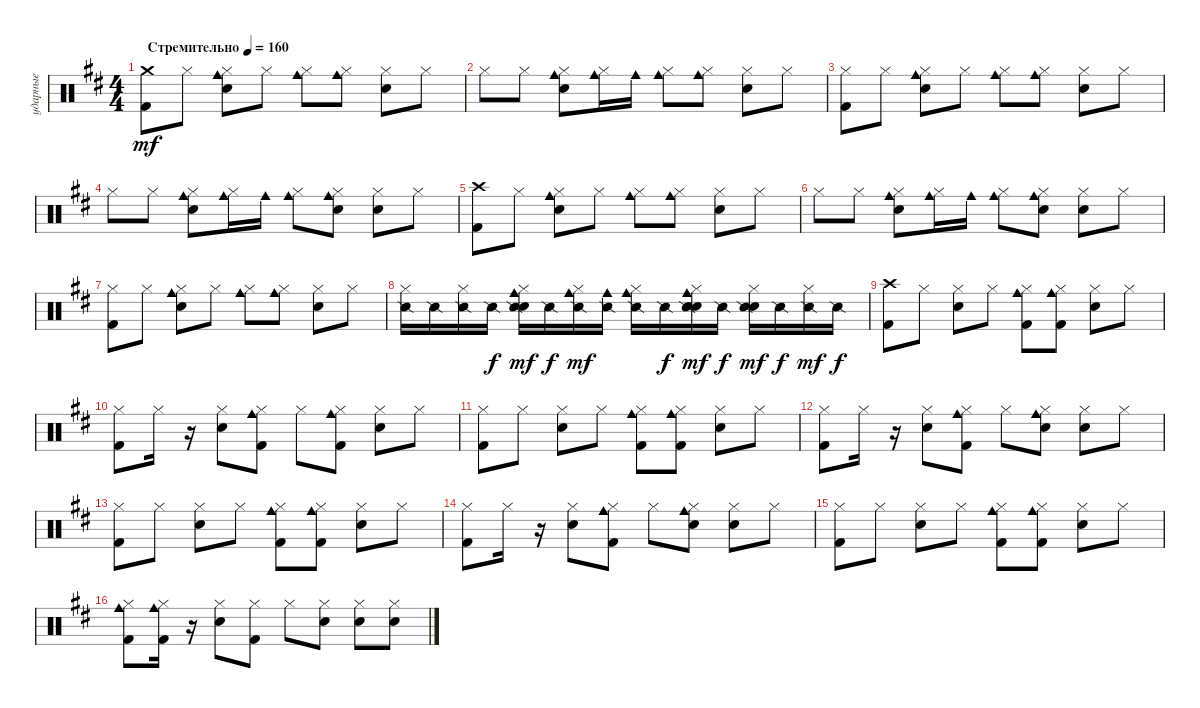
\track ("ударные" "ударные") {instrument percussion}
\staff {score}
\articulation defaults
\ts (4 4)
\tempo (160 "Стремительно")
\clef neutral
\ks bminor
("Crash medium (hit)" "Kick (hit) 2").8{dy mf} "Hi-Hat (closed)".8 ("Cowbell medium (hit)" "Snare (hit) 2" "Hi-Hat (closed)").8 "Hi-Hat (closed)".8 ("Cowbell medium (hit)" "Hi-Hat (closed)").8 ("Cowbell medium (hit)" "Hi-Hat (closed)").8 ("Snare (hit) 2" "Hi-Hat (closed)").8 "Hi-Hat (closed)".8 |
"Hi-Hat (closed)".8 "Hi-Hat (closed)".8 ("Cowbell medium (hit)" "Snare (hit) 2" "Hi-Hat (closed)").8 ("Cowbell medium (hit)" "Hi-Hat (closed)").16 "Cowbell medium (hit)".16 ("Cowbell medium (hit)" "Hi-Hat (closed)").8 ("Cowbell medium (hit)" "Hi-Hat (closed)").8 ("Snare (hit) 2" "Hi-Hat (closed)").8 "Hi-Hat (closed)".8 |
("Hi-Hat (closed)" "Kick (hit) 2").8 "Hi-Hat (closed)".8 ("Cowbell medium (hit)" "Snare (hit) 2" "Hi-Hat (closed)").8 "Hi-Hat (closed)".8 ("Cowbell medium (hit)" "Hi-Hat (closed)").8 ("Cowbell medium (hit)" "Hi-Hat (closed)").8 ("Snare (hit) 2" "Hi-Hat (closed)").8 "Hi-Hat (closed)".8 |
"Hi-Hat (closed)".8 "Hi-Hat (closed)".8 ("Cowbell medium (hit)" "Snare (hit) 2" "Hi-Hat (closed)").8 ("Cowbell medium (hit)" "Hi-Hat (closed)").16 "Cowbell medium (hit)".16 ("Cowbell medium (hit)" "Hi-Hat (closed)").8 ("Hand Clap (hit)" "Cowbell medium (hit)" "Hi-Hat (closed)").8 ("Snare (hit) 2" "Hi-Hat (closed)").8 "Hi-Hat (closed)".8 |
("Crash high (hit)" "Kick (hit) 2").8 "Hi-Hat (closed)".8 ("Cowbell medium (hit)" "Snare (hit) 2" "Hi-Hat (closed)").8 "Hi-Hat (closed)".8 ("Cowbell medium (hit)" "Hi-Hat (closed)").8 ("Cowbell medium (hit)" "Hi-Hat (closed)").8 ("Snare (hit) 2" "Hi-Hat (closed)").8 "Hi-Hat (closed)".8 |
"Hi-Hat (closed)".8 "Hi-Hat (closed)".8 ("Cowbell medium (hit)" "Snare (hit) 2" "Hi-Hat (closed)").8 ("Cowbell medium (hit)" "Hi-Hat (closed)").16 "Cowbell medium (hit)".16 ("Cowbell medium (hit)" "Hi-Hat (closed)").8 ("Cowbell medium (hit)" "Hi-Hat (closed)" "Hand Clap (hit)").8 ("Hi-Hat (closed)" "Snare (hit) 2").8 "Hi-Hat (closed)".8 |
("Hi-Hat (closed)" "Kick (hit) 2").8 "Hi-Hat (closed)".8 ("Cowbell medium (hit)" "Snare (hit) 2" "Hi-Hat (closed)").8 "Hi-Hat (closed)".8 ("Cowbell medium (hit)" "Hi-Hat (closed)").8 ("Cowbell medium (hit)" "Hi-Hat (closed)").8 ("Snare (hit) 2" "Hi-Hat (closed)").8 "Hi-Hat (closed)".8 |
("Hi-Hat (closed)" "Snare (side stick) 2").16 "Snare (side stick) 2".16 ("Hi-Hat (closed)" "Snare (side stick) 2").16 "Snare (side stick) 2".16{dy f} ("Cowbell medium (hit)" "Snare (hit) 2" "Hi-Hat (closed)" "Snare (side stick) 2").16{dy mf} "Snare (side stick) 2".16{dy f} ("Cowbell medium (hit)" "Hi-Hat (closed)" "Snare (side stick) 2").16{dy mf} ("Cowbell medium (hit)" "Snare (side stick) 2").16 ("Cowbell medium (hit)" "Hi-Hat (closed)" "Snare (side stick) 2").16 "Snare (side stick) 2".16{dy f} ("Cowbell medium (hit)" "Hi-Hat (closed)" "Hand Clap (hit)" "Snare (side stick) 2" "Hand Clap (hit)").16{dy mf} "Snare (side stick) 2".16{dy f} ("Hi-Hat (closed)" "Snare (hit) 2" "Snare (side stick) 2").16{dy mf} "Snare (side stick) 2".16{dy f} ("Hi-Hat (closed)" "Snare (side stick) 2").16{dy mf} "Snare (side stick) 2".16{dy f} |
("Crash high (hit)" "Kick (hit) 2").8 "Hi-Hat (closed)".8 ("Hi-Hat (closed)" "Snare (hit) 2").8 "Hi-Hat (closed)".8 ("Hi-Hat (closed)" "Cowbell medium (hit)" "Kick (hit) 2").8 ("Hi-Hat (closed)" "Cowbell medium (hit)" "Kick (hit) 2").8 ("Hi-Hat (closed)" "Snare (hit) 2").8 "Hi-Hat (closed)".8 |
("Hi-Hat (closed)" "Kick (hit) 2").8 "Hi-Hat (closed)".16 r.16 ("Hi-Hat (closed)" "Snare (hit) 2").8 ("Hi-Hat (closed)" "Kick (hit) 2" "Cowbell medium (hit)").8 "Hi-Hat (closed)".8 ("Hi-Hat (closed)" "Kick (hit) 2" "Cowbell medium (hit)").8 ("Hi-Hat (closed)" "Snare (hit) 2").8 "Hi-Hat (closed)".8 |
("Hi-Hat (closed)" "Kick (hit) 2").8 "Hi-Hat (closed)".8 ("Hi-Hat (closed)" "Snare (hit) 2").8 "Hi-Hat (closed)".8 ("Hi-Hat (closed)" "Cowbell medium (hit)" "Kick (hit) 2").8 ("Hi-Hat (closed)" "Cowbell medium (hit)" "Kick (hit) 2").8 ("Hi-Hat (closed)" "Snare (hit) 2").8 "Hi-Hat (closed)".8 |
("Hi-Hat (closed)" "Kick (hit) 2").8 "Hi-Hat (closed)".16 r.16 ("Hi-Hat (closed)" "Snare (hit) 2").8 ("Hi-Hat (closed)" "Kick (hit) 2" "Cowbell medium (hit)").8 "Hi-Hat (closed)".8 ("Hi-Hat (closed)" "Hand Clap (hit)" "Cowbell medium (hit)").8 ("Hi-Hat (closed)" "Snare (hit) 2").8 "Hi-Hat (closed)".8 |
("Hi-Hat (closed)" "Kick (hit) 2").8 "Hi-Hat (closed)".8 ("Hi-Hat (closed)" "Snare (hit) 2").8 "Hi-Hat (closed)".8 ("Hi-Hat (closed)" "Cowbell medium (hit)" "Kick (hit) 2").8 ("Hi-Hat (closed)" "Cowbell medium (hit)" "Kick (hit) 2").8 ("Hi-Hat (closed)" "Snare (hit) 2").8 "Hi-Hat (closed)".8 |
("Hi-Hat (closed)" "Kick (hit) 2").8 "Hi-Hat (closed)".16 r.16 ("Hi-Hat (closed)" "Snare (hit) 2").8 ("Hi-Hat (closed)" "Kick (hit) 2" "Cowbell medium (hit)").8 "Hi-Hat (closed)".8 ("Hi-Hat (closed)" "Hand Clap (hit)" "Cowbell medium (hit)").8 ("Hi-Hat (closed)" "Snare (hit) 2").8 "Hi-Hat (closed)".8 |
("Hi-Hat (closed)" "Kick (hit) 2").8 "Hi-Hat (closed)".8 ("Hi-Hat (closed)" "Snare (hit) 2").8 "Hi-Hat (closed)".8 ("Hi-Hat (closed)" "Cowbell medium (hit)" "Kick (hit) 2").8 ("Hi-Hat (closed)" "Cowbell medium (hit)" "Kick (hit) 2").8 ("Hi-Hat (closed)" "Snare (hit) 2").8 "Hi-Hat (closed)".8 |
("Cowbell medium (hit)" "Hi-Hat (closed)" "Kick (hit) 2").8 ("Cowbell medium (hit)" "Kick (hit) 2" "Hi-Hat (closed)").16 r.16 ("Hi-Hat (closed)" "Snare (hit) 2").8 ("Hi-Hat (closed)" "Kick (hit) 2").8 "Hi-Hat (closed)".8 ("Hi-Hat (closed)" "Snare (hit) 2").8 ("Hi-Hat (closed)" "Snare (hit) 2").8 ("Snare (hit) 2" "Hi-Hat (closed)").8
